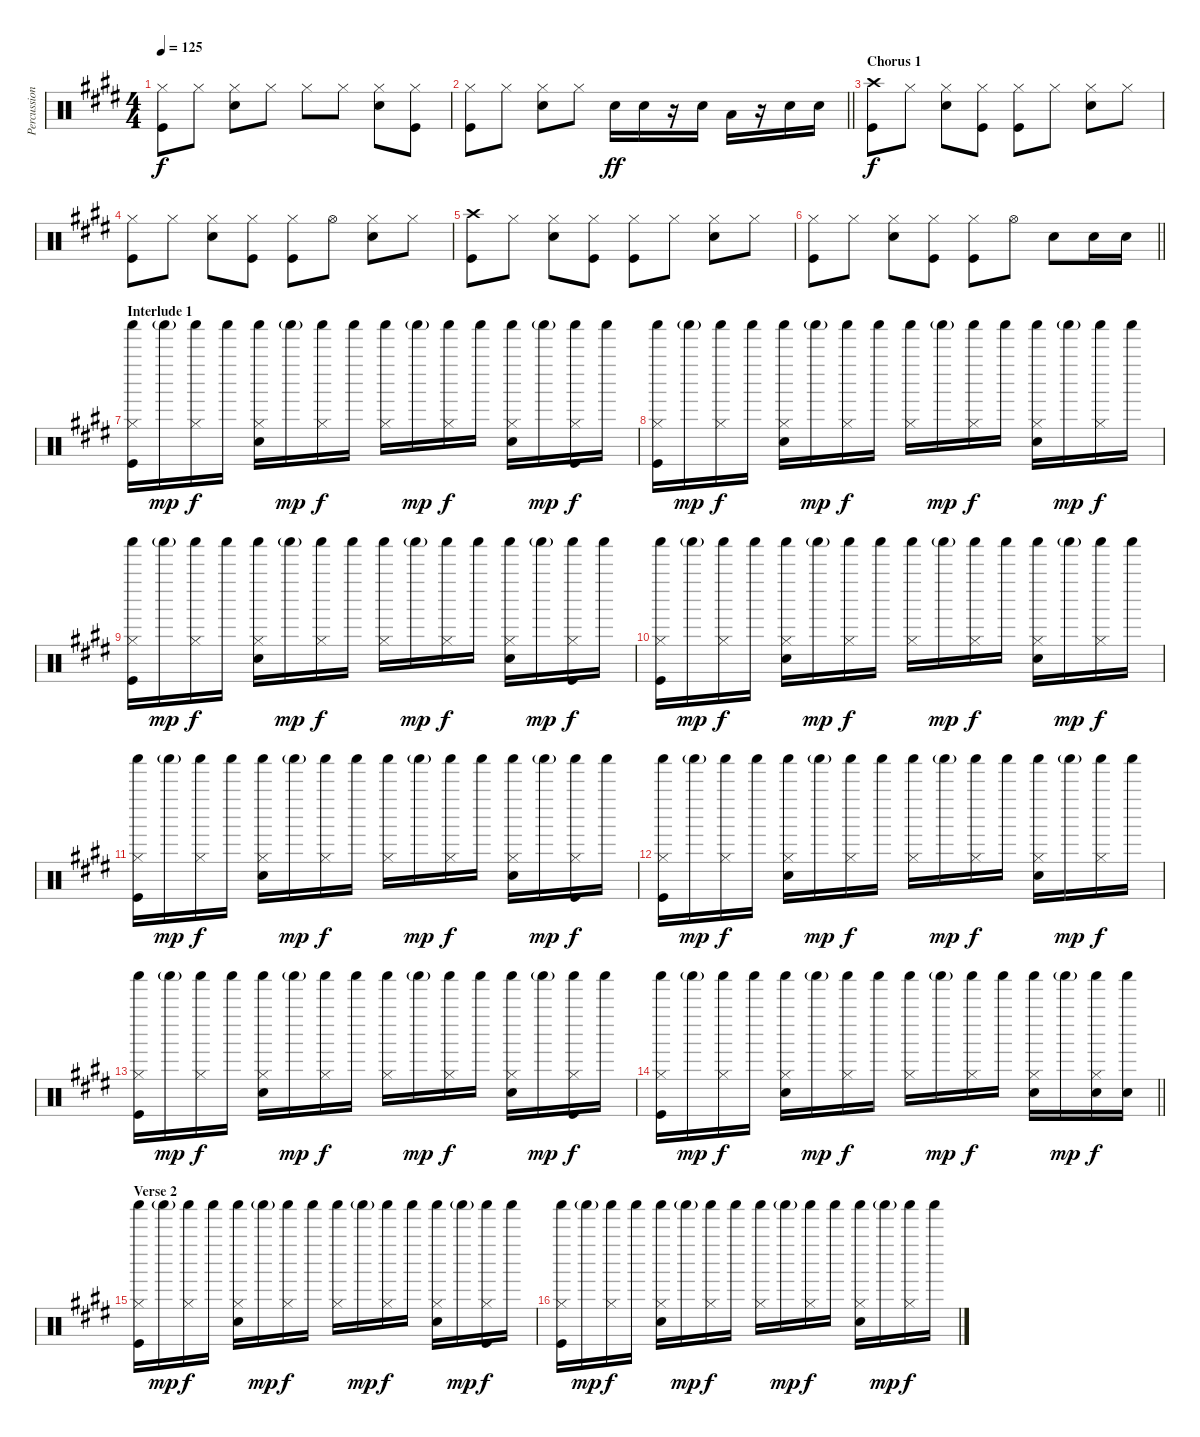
\track ("Percussion" "Percussion") {instrument percussion}
\staff {score}
\articulation defaults
\ts (4 4)
\tempo 125
\clef neutral
\ks c#minor
("Hi-Hat (closed)" "Kick (hit)").8{dy f} "Hi-Hat (closed)".8 ("Hi-Hat (closed)" "Electric Snare (hit)").8 "Hi-Hat (closed)".8 "Hi-Hat (closed)".8 "Hi-Hat (closed)".8 ("Hi-Hat (closed)" "Electric Snare (hit)").8 ("Hi-Hat (closed)" "Kick (hit)").8 |
\barLineRight lightlight
("Hi-Hat (closed)" "Kick (hit)").8 "Hi-Hat (closed)".8 ("Hi-Hat (closed)" "Electric Snare (hit)").8 "Hi-Hat (closed)".8 "Electric Snare (hit)".16{dy ff} "Electric Snare (hit)".16 r.16 "Electric Snare (hit)".16 "Low Floor Tom (hit)".16 r.16 "Electric Snare (hit)".16 "Electric Snare (hit)".16 |
\section ("" "Chorus 1")
("Crash high (hit)" "Kick (hit)").8{dy f} "Hi-Hat (closed)".8 ("Hi-Hat (closed)" "Electric Snare (hit)").8 ("Hi-Hat (closed)" "Kick (hit)").8 ("Hi-Hat (closed)" "Kick (hit)").8 "Hi-Hat (closed)".8 ("Hi-Hat (closed)" "Electric Snare (hit)").8 "Hi-Hat (closed)".8 |
("Hi-Hat (closed)" "Kick (hit)").8 "Hi-Hat (closed)".8 ("Hi-Hat (closed)" "Electric Snare (hit)").8 ("Hi-Hat (closed)" "Kick (hit)").8 ("Hi-Hat (closed)" "Kick (hit)").8 "Hi-Hat (open)".8 ("Hi-Hat (closed)" "Electric Snare (hit)").8 "Hi-Hat (closed)".8 |
("Crash high (hit)" "Kick (hit)").8 "Hi-Hat (closed)".8 ("Hi-Hat (closed)" "Electric Snare (hit)").8 ("Hi-Hat (closed)" "Kick (hit)").8 ("Hi-Hat (closed)" "Kick (hit)").8 "Hi-Hat (closed)".8 ("Hi-Hat (closed)" "Electric Snare (hit)").8 "Hi-Hat (closed)".8 |
\barLineRight lightlight
("Hi-Hat (closed)" "Kick (hit)").8 "Hi-Hat (closed)".8 ("Hi-Hat (closed)" "Electric Snare (hit)").8 ("Hi-Hat (closed)" "Kick (hit)").8 ("Hi-Hat (closed)" "Kick (hit)").8 "Hi-Hat (open)".8 "Electric Snare (hit)".8 "Electric Snare (hit)".16 "Electric Snare (hit)".16 |
\section ("" "Interlude 1")
("Hi-Hat (closed)" "Shaker (hit)" "Kick (hit)").16 "Shaker (hit)"{g}.16{dy mp} ("Hi-Hat (closed)" "Shaker (hit)").16{dy f} "Shaker (hit)".16 ("Hi-Hat (closed)" "Shaker (hit)" "Electric Snare (hit)").16 "Shaker (hit)"{g}.16{dy mp} ("Hi-Hat (closed)" "Shaker (hit)").16{dy f} "Shaker (hit)".16 ("Hi-Hat (closed)" "Shaker (hit)").16 "Shaker (hit)"{g}.16{dy mp} ("Hi-Hat (closed)" "Shaker (hit)").16{dy f} "Shaker (hit)".16 ("Hi-Hat (closed)" "Shaker (hit)" "Electric Snare (hit)").16 "Shaker (hit)"{g}.16{dy mp} ("Hi-Hat (closed)" "Shaker (hit)" "Kick (hit)").16{dy f} "Shaker (hit)".16 |
("Hi-Hat (closed)" "Shaker (hit)" "Kick (hit)").16 "Shaker (hit)"{g}.16{dy mp} ("Hi-Hat (closed)" "Shaker (hit)").16{dy f} "Shaker (hit)".16 ("Hi-Hat (closed)" "Shaker (hit)" "Electric Snare (hit)").16 "Shaker (hit)"{g}.16{dy mp} ("Hi-Hat (closed)" "Shaker (hit)").16{dy f} "Shaker (hit)".16 ("Hi-Hat (closed)" "Shaker (hit)").16 "Shaker (hit)"{g}.16{dy mp} ("Hi-Hat (closed)" "Shaker (hit)").16{dy f} "Shaker (hit)".16 ("Hi-Hat (closed)" "Shaker (hit)" "Electric Snare (hit)").16 "Shaker (hit)"{g}.16{dy mp} ("Hi-Hat (closed)" "Shaker (hit)").16{dy f} "Shaker (hit)".16 |
("Hi-Hat (closed)" "Shaker (hit)" "Kick (hit)").16 "Shaker (hit)"{g}.16{dy mp} ("Hi-Hat (closed)" "Shaker (hit)").16{dy f} "Shaker (hit)".16 ("Hi-Hat (closed)" "Shaker (hit)" "Electric Snare (hit)").16 "Shaker (hit)"{g}.16{dy mp} ("Hi-Hat (closed)" "Shaker (hit)").16{dy f} "Shaker (hit)".16 ("Hi-Hat (closed)" "Shaker (hit)").16 "Shaker (hit)"{g}.16{dy mp} ("Hi-Hat (closed)" "Shaker (hit)").16{dy f} "Shaker (hit)".16 ("Hi-Hat (closed)" "Shaker (hit)" "Electric Snare (hit)").16 "Shaker (hit)"{g}.16{dy mp} ("Hi-Hat (closed)" "Shaker (hit)" "Kick (hit)").16{dy f} "Shaker (hit)".16 |
("Hi-Hat (closed)" "Shaker (hit)" "Kick (hit)").16 "Shaker (hit)"{g}.16{dy mp} ("Hi-Hat (closed)" "Shaker (hit)").16{dy f} "Shaker (hit)".16 ("Hi-Hat (closed)" "Shaker (hit)" "Electric Snare (hit)").16 "Shaker (hit)"{g}.16{dy mp} ("Hi-Hat (closed)" "Shaker (hit)").16{dy f} "Shaker (hit)".16 ("Hi-Hat (closed)" "Shaker (hit)").16 "Shaker (hit)"{g}.16{dy mp} ("Hi-Hat (closed)" "Shaker (hit)").16{dy f} "Shaker (hit)".16 ("Hi-Hat (closed)" "Shaker (hit)" "Electric Snare (hit)").16 "Shaker (hit)"{g}.16{dy mp} ("Hi-Hat (closed)" "Shaker (hit)").16{dy f} "Shaker (hit)".16 |
("Hi-Hat (closed)" "Shaker (hit)" "Kick (hit)").16 "Shaker (hit)"{g}.16{dy mp} ("Hi-Hat (closed)" "Shaker (hit)").16{dy f} "Shaker (hit)".16 ("Hi-Hat (closed)" "Shaker (hit)" "Electric Snare (hit)").16 "Shaker (hit)"{g}.16{dy mp} ("Hi-Hat (closed)" "Shaker (hit)").16{dy f} "Shaker (hit)".16 ("Hi-Hat (closed)" "Shaker (hit)").16 "Shaker (hit)"{g}.16{dy mp} ("Hi-Hat (closed)" "Shaker (hit)").16{dy f} "Shaker (hit)".16 ("Hi-Hat (closed)" "Shaker (hit)" "Electric Snare (hit)").16 "Shaker (hit)"{g}.16{dy mp} ("Hi-Hat (closed)" "Shaker (hit)" "Kick (hit)").16{dy f} "Shaker (hit)".16 |
("Hi-Hat (closed)" "Shaker (hit)" "Kick (hit)").16 "Shaker (hit)"{g}.16{dy mp} ("Hi-Hat (closed)" "Shaker (hit)").16{dy f} "Shaker (hit)".16 ("Hi-Hat (closed)" "Shaker (hit)" "Electric Snare (hit)").16 "Shaker (hit)"{g}.16{dy mp} ("Hi-Hat (closed)" "Shaker (hit)").16{dy f} "Shaker (hit)".16 ("Hi-Hat (closed)" "Shaker (hit)").16 "Shaker (hit)"{g}.16{dy mp} ("Hi-Hat (closed)" "Shaker (hit)").16{dy f} "Shaker (hit)".16 ("Hi-Hat (closed)" "Shaker (hit)" "Electric Snare (hit)").16 "Shaker (hit)"{g}.16{dy mp} ("Hi-Hat (closed)" "Shaker (hit)").16{dy f} "Shaker (hit)".16 |
("Hi-Hat (closed)" "Shaker (hit)" "Kick (hit)").16 "Shaker (hit)"{g}.16{dy mp} ("Hi-Hat (closed)" "Shaker (hit)").16{dy f} "Shaker (hit)".16 ("Hi-Hat (closed)" "Shaker (hit)" "Electric Snare (hit)").16 "Shaker (hit)"{g}.16{dy mp} ("Hi-Hat (closed)" "Shaker (hit)").16{dy f} "Shaker (hit)".16 ("Hi-Hat (closed)" "Shaker (hit)").16 "Shaker (hit)"{g}.16{dy mp} ("Hi-Hat (closed)" "Shaker (hit)").16{dy f} "Shaker (hit)".16 ("Hi-Hat (closed)" "Shaker (hit)" "Electric Snare (hit)").16 "Shaker (hit)"{g}.16{dy mp} ("Hi-Hat (closed)" "Shaker (hit)" "Kick (hit)").16{dy f} "Shaker (hit)".16 |
\barLineRight lightlight
("Hi-Hat (closed)" "Shaker (hit)" "Kick (hit)").16 "Shaker (hit)"{g}.16{dy mp} ("Hi-Hat (closed)" "Shaker (hit)").16{dy f} "Shaker (hit)".16 ("Hi-Hat (closed)" "Shaker (hit)" "Electric Snare (hit)").16 "Shaker (hit)"{g}.16{dy mp} ("Hi-Hat (closed)" "Shaker (hit)").16{dy f} "Shaker (hit)".16 ("Hi-Hat (closed)" "Shaker (hit)").16 "Shaker (hit)"{g}.16{dy mp} ("Hi-Hat (closed)" "Shaker (hit)").16{dy f} "Shaker (hit)".16 ("Hi-Hat (closed)" "Shaker (hit)" "Electric Snare (hit)").16 "Shaker (hit)"{g}.16{dy mp} ("Hi-Hat (closed)" "Shaker (hit)" "Electric Snare (hit)").16{dy f} ("Shaker (hit)" "Electric Snare (hit)").16 |
\section ("" "Verse 2")
("Hi-Hat (closed)" "Shaker (hit)" "Kick (hit)").16 "Shaker (hit)"{g}.16{dy mp} ("Hi-Hat (closed)" "Shaker (hit)").16{dy f} "Shaker (hit)".16 ("Hi-Hat (closed)" "Shaker (hit)" "Electric Snare (hit)").16 "Shaker (hit)"{g}.16{dy mp} ("Hi-Hat (closed)" "Shaker (hit)").16{dy f} "Shaker (hit)".16 ("Hi-Hat (closed)" "Shaker (hit)").16 "Shaker (hit)"{g}.16{dy mp} ("Hi-Hat (closed)" "Shaker (hit)").16{dy f} "Shaker (hit)".16 ("Hi-Hat (closed)" "Shaker (hit)" "Electric Snare (hit)").16 "Shaker (hit)"{g}.16{dy mp} ("Hi-Hat (closed)" "Shaker (hit)" "Kick (hit)").16{dy f} "Shaker (hit)".16 |
("Hi-Hat (closed)" "Shaker (hit)" "Kick (hit)").16 "Shaker (hit)"{g}.16{dy mp} ("Hi-Hat (closed)" "Shaker (hit)").16{dy f} "Shaker (hit)".16 ("Hi-Hat (closed)" "Shaker (hit)" "Electric Snare (hit)").16 "Shaker (hit)"{g}.16{dy mp} ("Hi-Hat (closed)" "Shaker (hit)").16{dy f} "Shaker (hit)".16 ("Hi-Hat (closed)" "Shaker (hit)").16 "Shaker (hit)"{g}.16{dy mp} ("Hi-Hat (closed)" "Shaker (hit)").16{dy f} "Shaker (hit)".16 ("Hi-Hat (closed)" "Shaker (hit)" "Electric Snare (hit)").16 "Shaker (hit)"{g}.16{dy mp} ("Hi-Hat (closed)" "Shaker (hit)").16{dy f} "Shaker (hit)".16
